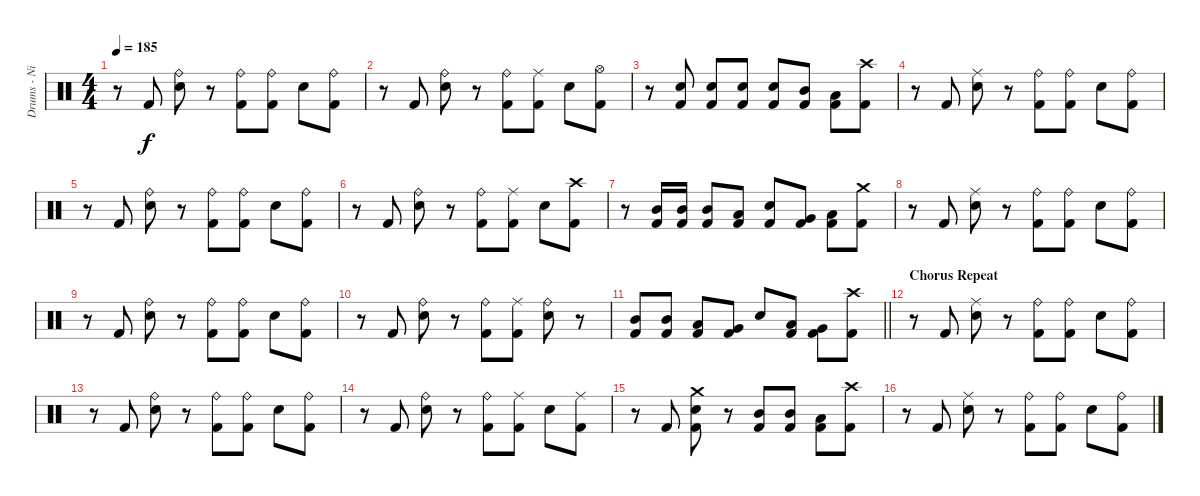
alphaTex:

\track ("Drums - Nicko" "Drums - Ni") {instrument percussion}
\staff {score}
\articulation defaults
\ts (4 4)
\tempo 185
\clef neutral
\ks c
r.8{dy f} "Kick (hit) 2".8 ("Ride (bell)" "Snare (hit) 2").8 r.8 ("Ride (bell)" "Kick (hit) 2").8 ("Ride (bell)" "Kick (hit) 2").8 "Snare (hit) 2".8 ("Ride (bell)" "Kick (hit) 2").8 |
r.8 "Kick (hit) 2".8 ("Ride (bell)" "Snare (hit) 2").8 r.8 ("Ride (bell)" "Kick (hit) 2").8 ("Ride (middle)" "Kick (hit) 2").8 "Snare (hit) 2".8 ("Hi-Hat (open)" "Kick (hit) 2").8 |
r.8 ("Snare (hit) 2" "Kick (hit) 2").8 ("Snare (hit) 2" "Kick (hit) 2").8 ("Snare (hit) 2" "Kick (hit) 2").8 ("Snare (hit) 2" "Kick (hit) 2").8 ("Mid Tom (hit)" "Kick (hit) 2").8 ("Low Tom (hit)" "Kick (hit) 2").8 ("Crash high (hit)" "Kick (hit) 2").8 |
r.8 "Kick (hit) 2".8 ("Ride (middle)" "Snare (hit) 2").8 r.8 ("Ride (bell)" "Kick (hit) 2").8 ("Ride (bell)" "Kick (hit) 2").8 "Snare (hit) 2".8 ("Ride (bell)" "Kick (hit) 2").8 |
r.8 "Kick (hit) 2".8 ("Ride (bell)" "Snare (hit) 2").8 r.8 ("Ride (bell)" "Kick (hit) 2").8 ("Ride (bell)" "Kick (hit) 2").8 "Snare (hit) 2".8 ("Ride (bell)" "Kick (hit) 2").8 |
r.8 "Kick (hit) 2".8 ("Ride (bell)" "Snare (hit) 2").8 r.8 ("Ride (bell)" "Kick (hit) 2").8 ("Ride (middle)" "Kick (hit) 2").8 "Snare (hit) 2".8 ("Crash high (hit)" "Kick (hit) 2").8 |
r.8 ("Mid Tom (hit)" "Kick (hit) 2").16 ("Mid Tom (hit)" "Kick (hit) 2").16 ("Mid Tom (hit)" "Kick (hit) 2").8 ("Low Tom (hit)" "Kick (hit) 2").8 ("Snare (hit) 2" "Kick (hit) 2").8 ("Very Low Tom (hit)" "Kick (hit) 2").8 ("Low Floor Tom (hit)" "Kick (hit) 2").8 ("Crash medium (hit)" "Kick (hit) 2").8 |
r.8 "Kick (hit) 2".8 ("Ride (middle)" "Snare (hit) 2").8 r.8 ("Ride (bell)" "Kick (hit) 2").8 ("Ride (bell)" "Kick (hit) 2").8 "Snare (hit) 2".8 ("Ride (bell)" "Kick (hit) 2").8 |
r.8 "Kick (hit) 2".8 ("Ride (bell)" "Snare (hit) 2").8 r.8 ("Ride (bell)" "Kick (hit) 2").8 ("Ride (bell)" "Kick (hit) 2").8 "Snare (hit) 2".8 ("Ride (bell)" "Kick (hit) 2").8 |
r.8 "Kick (hit) 2".8 ("Ride (bell)" "Snare (hit) 2").8 r.8 ("Ride (bell)" "Kick (hit) 2").8 ("Ride (middle)" "Kick (hit) 2").8 ("Ride (bell)" "Snare (hit) 2").8 r.8 |
\barLineRight lightlight
("Mid Tom (hit)" "Kick (hit) 2").8 ("Mid Tom (hit)" "Kick (hit) 2").8 ("Low Tom (hit)" "Kick (hit) 2").8 ("Very Low Tom (hit)" "Kick (hit) 2").8 "Snare (hit) 2".8 ("Low Tom (hit)" "Kick (hit) 2").8 ("Very Low Tom (hit)" "Kick (hit) 2").8 ("Crash high (hit)" "Kick (hit) 2").8 |
\section ("" "Chorus Repeat")
r.8 "Kick (hit) 2".8 ("Ride (middle)" "Snare (hit) 2").8 r.8 ("Ride (bell)" "Kick (hit) 2").8 ("Ride (bell)" "Kick (hit) 2").8 "Snare (hit) 2".8 ("Ride (bell)" "Kick (hit) 2").8 |
r.8 "Kick (hit) 2".8 ("Ride (bell)" "Snare (hit) 2").8 r.8 ("Ride (bell)" "Kick (hit) 2").8 ("Ride (bell)" "Kick (hit) 2").8 "Snare (hit) 2".8 ("Ride (bell)" "Kick (hit) 2").8 |
r.8 "Kick (hit) 2".8 ("Ride (bell)" "Snare (hit) 2").8 r.8 ("Ride (bell)" "Kick (hit) 2").8 ("Ride (middle)" "Kick (hit) 2").8 "Snare (hit) 2".8 ("Ride (middle)" "Kick (hit) 2").8 |
r.8 "Kick (hit) 2".8 ("Crash medium (hit)" "Snare (hit) 2" "Kick (hit) 2").8 r.8 ("Mid Tom (hit)" "Kick (hit) 2").8 ("Mid Tom (hit)" "Kick (hit) 2").8 ("Low Tom (hit)" "Kick (hit) 2").8 ("Crash high (hit)" "Kick (hit) 2").8 |
r.8 "Kick (hit) 2".8 ("Ride (middle)" "Snare (hit) 2").8 r.8 ("Ride (bell)" "Kick (hit) 2").8 ("Ride (bell)" "Kick (hit) 2").8 "Snare (hit) 2".8 ("Ride (bell)" "Kick (hit) 2").8
